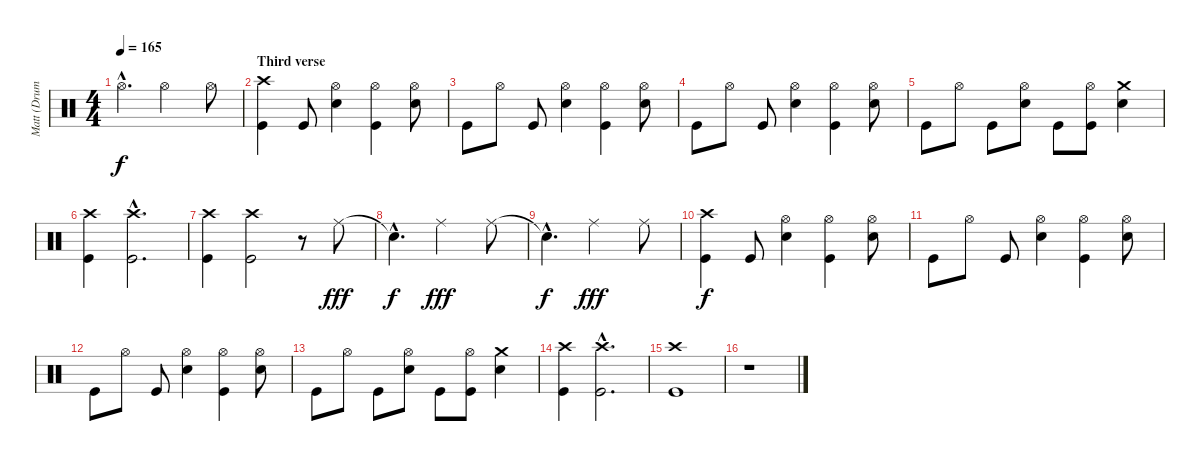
\track ("Matt (Drums)" "Matt (Drum") {instrument percussion}
\staff {score}
\articulation defaults
\ts (4 4)
\tempo 165
\clef neutral
\ks c "Hi-Hat (open)"{hac t}.4{d dy f} "Hi-Hat (open)".2 "Hi-Hat (open)".8
|
\section ("" "Third verse")
("Crash high (hit)" "Kick (hit)").4 "Kick (hit)".8 ("Hi-Hat (open)" "Electric Snare (hit)").4 ("Hi-Hat (open)" "Kick (hit)").4 ("Hi-Hat (open)" "Electric Snare (hit)").8 |
"Kick (hit)".8 "Hi-Hat (open)".8 "Kick (hit)".8 ("Hi-Hat (open)" "Electric Snare (hit)").4 ("Hi-Hat (open)" "Kick (hit)").4 ("Hi-Hat (open)" "Electric Snare (hit)").8 |
"Kick (hit)".8 "Hi-Hat (open)".8 "Kick (hit)".8 ("Hi-Hat (open)" "Electric Snare (hit)").4 ("Hi-Hat (open)" "Kick (hit)").4 ("Hi-Hat (open)" "Electric Snare (hit)").8 |
"Kick (hit)".8 "Hi-Hat (open)".8 "Kick (hit)".8 ("Hi-Hat (open)" "Electric Snare (hit)").8 "Kick (hit)".8 ("Hi-Hat (open)" "Kick (hit)").8 ("Crash medium (hit)" "Electric Snare (hit)").4 |
("Crash high (hit)" "Kick (hit)").4 ("Crash high (hit)"{hac} "Kick (hit)"{hac}).2{d} |
("Crash high (hit)" "Kick (hit)").4 ("Crash high (hit)" "Kick (hit)").2 r.8 "Ride (middle)".8{dy fff} |
"Snare (hit)"{hac t}.4{d dy f} "Ride (middle)".2{dy fff} "Ride (middle)".8 |
"Snare (hit)"{hac t}.4{d dy f} "Ride (middle)".2{dy fff} "Ride (middle)".8 |
("Crash high (hit)" "Kick (hit)").4{dy f} "Kick (hit)".8 ("Hi-Hat (open)" "Electric Snare (hit)").4 ("Hi-Hat (open)" "Kick (hit)").4 ("Hi-Hat (open)" "Electric Snare (hit)").8 |
"Kick (hit)".8 "Hi-Hat (open)".8 "Kick (hit)".8 ("Hi-Hat (open)" "Electric Snare (hit)").4 ("Hi-Hat (open)" "Kick (hit)").4 ("Hi-Hat (open)" "Electric Snare (hit)").8 |
"Kick (hit)".8 "Hi-Hat (open)".8 "Kick (hit)".8 ("Hi-Hat (open)" "Electric Snare (hit)").4 ("Hi-Hat (open)" "Kick (hit)").4 ("Hi-Hat (open)" "Electric Snare (hit)").8 |
"Kick (hit)".8 "Hi-Hat (open)".8 "Kick (hit)".8 ("Hi-Hat (open)" "Electric Snare (hit)").8 "Kick (hit)".8 ("Hi-Hat (open)" "Kick (hit)").8 ("Crash medium (hit)" "Electric Snare (hit)").4 |
("Crash high (hit)" "Kick (hit)").4 ("Crash high (hit)"{hac} "Kick (hit)"{hac}).2{d} |
("Crash high (hit)" "Kick (hit)").1 |
r.1
